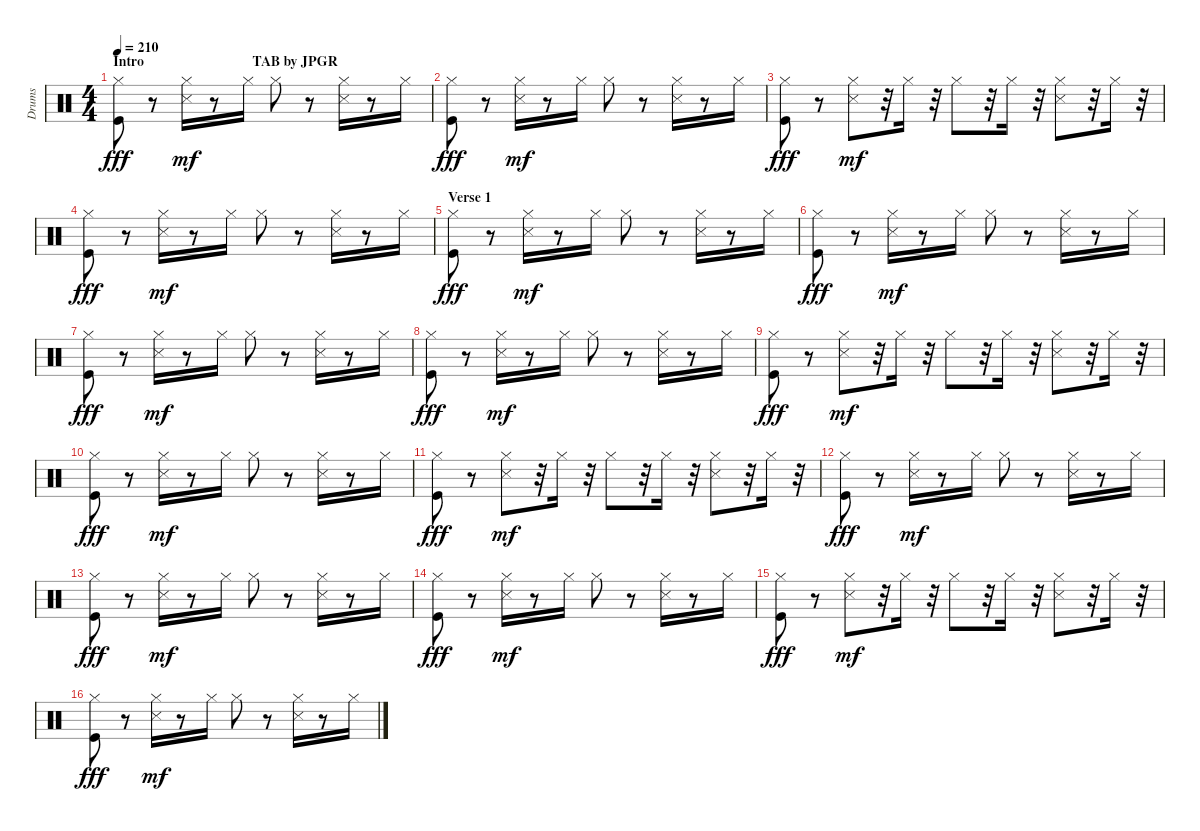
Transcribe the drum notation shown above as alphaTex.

\track ("Drums" "Drums") {instrument percussion}
\staff {score}
\articulation defaults
\ts (4 4)
\section ("" "Intro                               TAB by JPGR")
\tempo 210
\clef neutral
\ks c
("Hi-Hat (closed)" "Kick (hit)").8{dy fff} r.8 ("Hi-Hat (closed)" "Snare (side stick) 3").16{dy mf} r.8 "Hi-Hat (closed)".16 "Hi-Hat (closed)".8 r.8 ("Hi-Hat (closed)" "Snare (side stick) 3").16 r.8 "Hi-Hat (closed)".16 |
("Hi-Hat (closed)" "Kick (hit)").8{dy fff} r.8 ("Hi-Hat (closed)" "Snare (side stick) 3").16{dy mf} r.8 "Hi-Hat (closed)".16 "Hi-Hat (closed)".8 r.8 ("Hi-Hat (closed)" "Snare (side stick) 3").16 r.8 "Hi-Hat (closed)".16 |
("Hi-Hat (closed)" "Kick (hit)").8{dy fff} r.8 ("Hi-Hat (closed)" "Snare (side stick) 3").8{dy mf} r.32 "Hi-Hat (closed)".16 r.32 "Hi-Hat (closed)".8 r.32 "Hi-Hat (closed)".16 r.32 ("Hi-Hat (closed)" "Snare (side stick) 3").8 r.32 "Hi-Hat (closed)".16 r.32 |
("Hi-Hat (closed)" "Kick (hit)").8{dy fff} r.8 ("Hi-Hat (closed)" "Snare (side stick) 3").16{dy mf} r.8 "Hi-Hat (closed)".16 "Hi-Hat (closed)".8 r.8 ("Hi-Hat (closed)" "Snare (side stick) 3").16 r.8 "Hi-Hat (closed)".16 |
\section ("" "Verse 1")
("Hi-Hat (closed)" "Kick (hit)").8{dy fff} r.8 ("Hi-Hat (closed)" "Snare (side stick) 3").16{dy mf} r.8 "Hi-Hat (closed)".16 "Hi-Hat (closed)".8 r.8 ("Hi-Hat (closed)" "Snare (side stick) 3").16 r.8 "Hi-Hat (closed)".16 |
("Hi-Hat (closed)" "Kick (hit)").8{dy fff} r.8 ("Hi-Hat (closed)" "Snare (side stick) 3").16{dy mf} r.8 "Hi-Hat (closed)".16 "Hi-Hat (closed)".8 r.8 ("Hi-Hat (closed)" "Snare (side stick) 3").16 r.8 "Hi-Hat (closed)".16 |
("Hi-Hat (closed)" "Kick (hit)").8{dy fff} r.8 ("Hi-Hat (closed)" "Snare (side stick) 3").16{dy mf} r.8 "Hi-Hat (closed)".16 "Hi-Hat (closed)".8 r.8 ("Hi-Hat (closed)" "Snare (side stick) 3").16 r.8 "Hi-Hat (closed)".16 |
("Hi-Hat (closed)" "Kick (hit)").8{dy fff} r.8 ("Hi-Hat (closed)" "Snare (side stick) 3").16{dy mf} r.8 "Hi-Hat (closed)".16 "Hi-Hat (closed)".8 r.8 ("Hi-Hat (closed)" "Snare (side stick) 3").16 r.8 "Hi-Hat (closed)".16 |
("Hi-Hat (closed)" "Kick (hit)").8{dy fff} r.8 ("Hi-Hat (closed)" "Snare (side stick) 3").8{dy mf} r.32 "Hi-Hat (closed)".16 r.32 "Hi-Hat (closed)".8 r.32 "Hi-Hat (closed)".16 r.32 ("Hi-Hat (closed)" "Snare (side stick) 3").8 r.32 "Hi-Hat (closed)".16 r.32 |
("Hi-Hat (closed)" "Kick (hit)").8{dy fff} r.8 ("Hi-Hat (closed)" "Snare (side stick) 3").16{dy mf} r.8 "Hi-Hat (closed)".16 "Hi-Hat (closed)".8 r.8 ("Hi-Hat (closed)" "Snare (side stick) 3").16 r.8 "Hi-Hat (closed)".16 |
("Hi-Hat (closed)" "Kick (hit)").8{dy fff} r.8 ("Hi-Hat (closed)" "Snare (side stick) 3").8{dy mf} r.32 "Hi-Hat (closed)".16 r.32 "Hi-Hat (closed)".8 r.32 "Hi-Hat (closed)".16 r.32 ("Hi-Hat (closed)" "Snare (side stick) 3").8 r.32 "Hi-Hat (closed)".16 r.32 |
("Hi-Hat (closed)" "Kick (hit)").8{dy fff} r.8 ("Hi-Hat (closed)" "Snare (side stick) 3").16{dy mf} r.8 "Hi-Hat (closed)".16 "Hi-Hat (closed)".8 r.8 ("Hi-Hat (closed)" "Snare (side stick) 3").16 r.8 "Hi-Hat (closed)".16 |
("Hi-Hat (closed)" "Kick (hit)").8{dy fff} r.8 ("Hi-Hat (closed)" "Snare (side stick) 3").16{dy mf} r.8 "Hi-Hat (closed)".16 "Hi-Hat (closed)".8 r.8 ("Hi-Hat (closed)" "Snare (side stick) 3").16 r.8 "Hi-Hat (closed)".16 |
("Hi-Hat (closed)" "Kick (hit)").8{dy fff} r.8 ("Hi-Hat (closed)" "Snare (side stick) 3").16{dy mf} r.8 "Hi-Hat (closed)".16 "Hi-Hat (closed)".8 r.8 ("Hi-Hat (closed)" "Snare (side stick) 3").16 r.8 "Hi-Hat (closed)".16 |
("Hi-Hat (closed)" "Kick (hit)").8{dy fff} r.8 ("Hi-Hat (closed)" "Snare (side stick) 3").8{dy mf} r.32 "Hi-Hat (closed)".16 r.32 "Hi-Hat (closed)".8 r.32 "Hi-Hat (closed)".16 r.32 ("Hi-Hat (closed)" "Snare (side stick) 3").8 r.32 "Hi-Hat (closed)".16 r.32 |
("Hi-Hat (closed)" "Kick (hit)").8{dy fff} r.8 ("Hi-Hat (closed)" "Snare (side stick) 3").16{dy mf} r.8 "Hi-Hat (closed)".16 "Hi-Hat (closed)".8 r.8 ("Hi-Hat (closed)" "Snare (side stick) 3").16 r.8 "Hi-Hat (closed)".16
